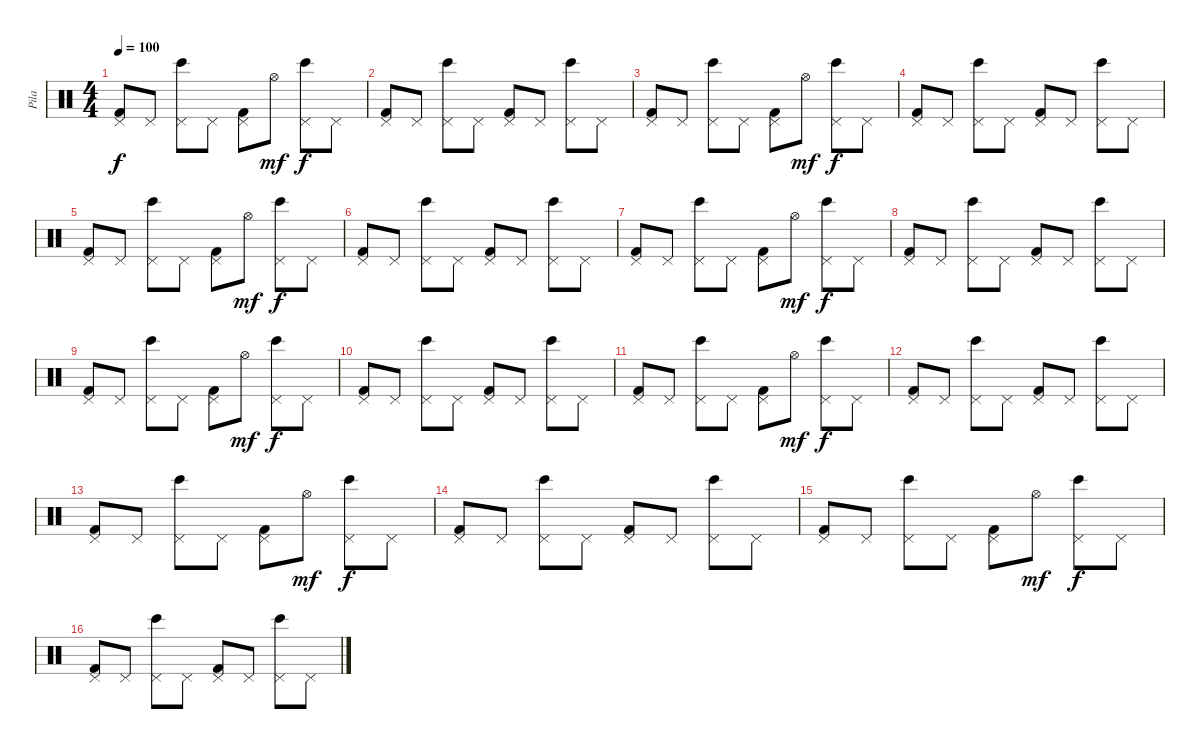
\track ("Pila" "Pila") {instrument percussion}
\staff {score}
\articulation defaults
\ts (4 4)
\tempo 100
\clef neutral
\ks c
("Pedal Hi-Hat (hit)" "Kick (hit) 2").8{dy f} "Pedal Hi-Hat (hit)".8 ("Pedal Hi-Hat (hit)" "Bongo High (hit)").8 "Pedal Hi-Hat (hit)".8 ("Pedal Hi-Hat (hit)" "Kick (hit) 2").8 "Hi-Hat (open)".8{dy mf} ("Pedal Hi-Hat (hit)" "Bongo High (hit)").8{dy f} "Pedal Hi-Hat (hit)".8 |
("Pedal Hi-Hat (hit)" "Kick (hit) 2").8 "Pedal Hi-Hat (hit)".8 ("Pedal Hi-Hat (hit)" "Bongo High (hit)").8 "Pedal Hi-Hat (hit)".8 ("Pedal Hi-Hat (hit)" "Kick (hit) 2").8 "Pedal Hi-Hat (hit)".8 ("Pedal Hi-Hat (hit)" "Bongo High (hit)").8 "Pedal Hi-Hat (hit)".8 |
("Pedal Hi-Hat (hit)" "Kick (hit) 2").8 "Pedal Hi-Hat (hit)".8 ("Pedal Hi-Hat (hit)" "Bongo High (hit)").8 "Pedal Hi-Hat (hit)".8 ("Pedal Hi-Hat (hit)" "Kick (hit) 2").8 "Hi-Hat (open)".8{dy mf} ("Pedal Hi-Hat (hit)" "Bongo High (hit)").8{dy f} "Pedal Hi-Hat (hit)".8 |
("Pedal Hi-Hat (hit)" "Kick (hit) 2").8 "Pedal Hi-Hat (hit)".8 ("Pedal Hi-Hat (hit)" "Bongo High (hit)").8 "Pedal Hi-Hat (hit)".8 ("Pedal Hi-Hat (hit)" "Kick (hit) 2").8 "Pedal Hi-Hat (hit)".8 ("Pedal Hi-Hat (hit)" "Bongo High (hit)").8 "Pedal Hi-Hat (hit)".8 |
("Pedal Hi-Hat (hit)" "Kick (hit) 2").8 "Pedal Hi-Hat (hit)".8 ("Pedal Hi-Hat (hit)" "Bongo High (hit)").8 "Pedal Hi-Hat (hit)".8 ("Pedal Hi-Hat (hit)" "Kick (hit) 2").8 "Hi-Hat (open)".8{dy mf} ("Pedal Hi-Hat (hit)" "Bongo High (hit)").8{dy f} "Pedal Hi-Hat (hit)".8 |
("Pedal Hi-Hat (hit)" "Kick (hit) 2").8 "Pedal Hi-Hat (hit)".8 ("Pedal Hi-Hat (hit)" "Bongo High (hit)").8 "Pedal Hi-Hat (hit)".8 ("Pedal Hi-Hat (hit)" "Kick (hit) 2").8 "Pedal Hi-Hat (hit)".8 ("Pedal Hi-Hat (hit)" "Bongo High (hit)").8 "Pedal Hi-Hat (hit)".8 |
("Pedal Hi-Hat (hit)" "Kick (hit) 2").8 "Pedal Hi-Hat (hit)".8 ("Pedal Hi-Hat (hit)" "Bongo High (hit)").8 "Pedal Hi-Hat (hit)".8 ("Pedal Hi-Hat (hit)" "Kick (hit) 2").8 "Hi-Hat (open)".8{dy mf} ("Pedal Hi-Hat (hit)" "Bongo High (hit)").8{dy f} "Pedal Hi-Hat (hit)".8 |
("Pedal Hi-Hat (hit)" "Kick (hit) 2").8 "Pedal Hi-Hat (hit)".8 ("Pedal Hi-Hat (hit)" "Bongo High (hit)").8 "Pedal Hi-Hat (hit)".8 ("Pedal Hi-Hat (hit)" "Kick (hit) 2").8 "Pedal Hi-Hat (hit)".8 ("Pedal Hi-Hat (hit)" "Bongo High (hit)").8 "Pedal Hi-Hat (hit)".8 |
("Pedal Hi-Hat (hit)" "Kick (hit) 2").8 "Pedal Hi-Hat (hit)".8 ("Pedal Hi-Hat (hit)" "Bongo High (hit)").8 "Pedal Hi-Hat (hit)".8 ("Pedal Hi-Hat (hit)" "Kick (hit) 2").8 "Hi-Hat (open)".8{dy mf} ("Pedal Hi-Hat (hit)" "Bongo High (hit)").8{dy f} "Pedal Hi-Hat (hit)".8 |
("Pedal Hi-Hat (hit)" "Kick (hit) 2").8 "Pedal Hi-Hat (hit)".8 ("Pedal Hi-Hat (hit)" "Bongo High (hit)").8 "Pedal Hi-Hat (hit)".8 ("Pedal Hi-Hat (hit)" "Kick (hit) 2").8 "Pedal Hi-Hat (hit)".8 ("Pedal Hi-Hat (hit)" "Bongo High (hit)").8 "Pedal Hi-Hat (hit)".8 |
("Pedal Hi-Hat (hit)" "Kick (hit) 2").8 "Pedal Hi-Hat (hit)".8 ("Pedal Hi-Hat (hit)" "Bongo High (hit)").8 "Pedal Hi-Hat (hit)".8 ("Pedal Hi-Hat (hit)" "Kick (hit) 2").8 "Hi-Hat (open)".8{dy mf} ("Pedal Hi-Hat (hit)" "Bongo High (hit)").8{dy f} "Pedal Hi-Hat (hit)".8 |
("Pedal Hi-Hat (hit)" "Kick (hit) 2").8 "Pedal Hi-Hat (hit)".8 ("Pedal Hi-Hat (hit)" "Bongo High (hit)").8 "Pedal Hi-Hat (hit)".8 ("Pedal Hi-Hat (hit)" "Kick (hit) 2").8 "Pedal Hi-Hat (hit)".8 ("Pedal Hi-Hat (hit)" "Bongo High (hit)").8 "Pedal Hi-Hat (hit)".8 |
("Pedal Hi-Hat (hit)" "Kick (hit) 2").8 "Pedal Hi-Hat (hit)".8 ("Pedal Hi-Hat (hit)" "Bongo High (hit)").8 "Pedal Hi-Hat (hit)".8 ("Pedal Hi-Hat (hit)" "Kick (hit) 2").8 "Hi-Hat (open)".8{dy mf} ("Pedal Hi-Hat (hit)" "Bongo High (hit)").8{dy f} "Pedal Hi-Hat (hit)".8 |
("Pedal Hi-Hat (hit)" "Kick (hit) 2").8 "Pedal Hi-Hat (hit)".8 ("Pedal Hi-Hat (hit)" "Bongo High (hit)").8 "Pedal Hi-Hat (hit)".8 ("Pedal Hi-Hat (hit)" "Kick (hit) 2").8 "Pedal Hi-Hat (hit)".8 ("Pedal Hi-Hat (hit)" "Bongo High (hit)").8 "Pedal Hi-Hat (hit)".8 |
("Pedal Hi-Hat (hit)" "Kick (hit) 2").8 "Pedal Hi-Hat (hit)".8 ("Pedal Hi-Hat (hit)" "Bongo High (hit)").8 "Pedal Hi-Hat (hit)".8 ("Pedal Hi-Hat (hit)" "Kick (hit) 2").8 "Hi-Hat (open)".8{dy mf} ("Pedal Hi-Hat (hit)" "Bongo High (hit)").8{dy f} "Pedal Hi-Hat (hit)".8 |
("Pedal Hi-Hat (hit)" "Kick (hit) 2").8 "Pedal Hi-Hat (hit)".8 ("Pedal Hi-Hat (hit)" "Bongo High (hit)").8 "Pedal Hi-Hat (hit)".8 ("Pedal Hi-Hat (hit)" "Kick (hit) 2").8 "Pedal Hi-Hat (hit)".8 ("Pedal Hi-Hat (hit)" "Bongo High (hit)").8 "Pedal Hi-Hat (hit)".8
